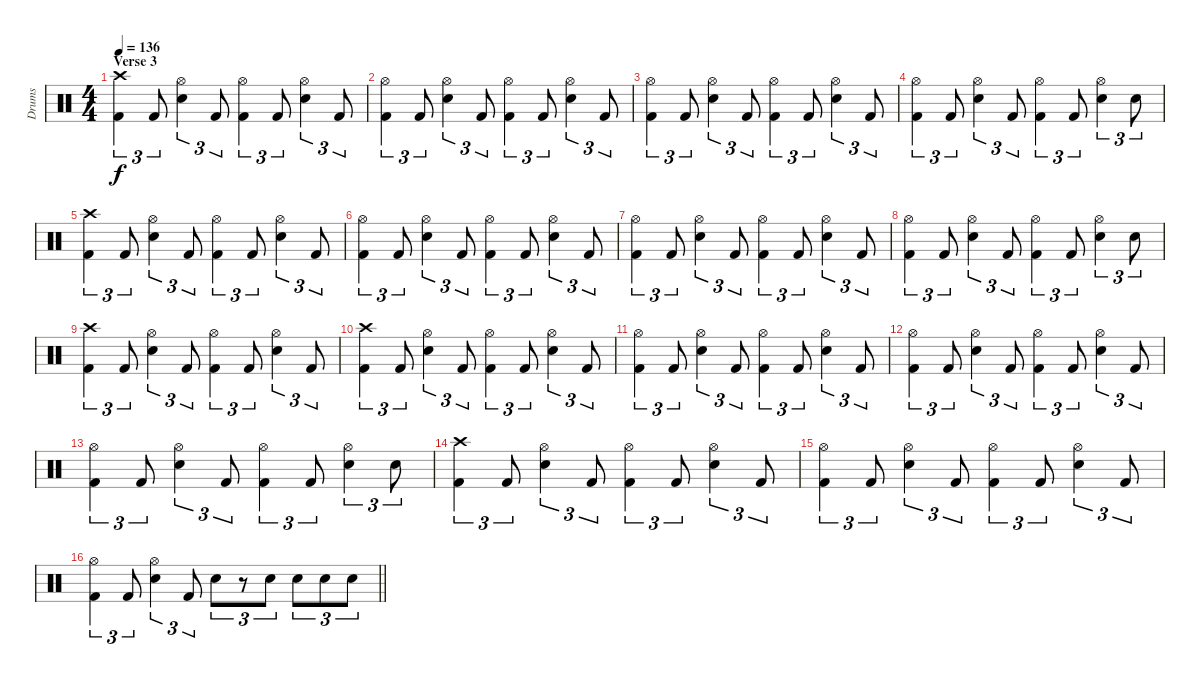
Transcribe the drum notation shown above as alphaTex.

\track ("Drums" "Drums") {instrument percussion}
\staff {score}
\articulation defaults
\ts (4 4)
\section ("" "Verse 3")
\tempo 136
\clef neutral
\ks c
("Crash high (hit)" "Kick (hit) 2").4{tu (3 2) dy f} "Kick (hit) 2".8{tu (3 2)} ("Hi-Hat (open)" "Electric Snare (hit)").4{tu (3 2)} "Kick (hit) 2".8{tu (3 2)} ("Hi-Hat (open)" "Kick (hit) 2").4{tu (3 2)} "Kick (hit) 2".8{tu (3 2)} ("Hi-Hat (open)" "Electric Snare (hit)").4{tu (3 2)} "Kick (hit) 2".8{tu (3 2)} |
("Hi-Hat (open)" "Kick (hit) 2").4{tu (3 2)} "Kick (hit) 2".8{tu (3 2)} ("Hi-Hat (open)" "Electric Snare (hit)").4{tu (3 2)} "Kick (hit) 2".8{tu (3 2)} ("Hi-Hat (open)" "Kick (hit) 2").4{tu (3 2)} "Kick (hit) 2".8{tu (3 2)} ("Hi-Hat (open)" "Electric Snare (hit)").4{tu (3 2)} "Kick (hit) 2".8{tu (3 2)} |
("Hi-Hat (open)" "Kick (hit) 2").4{tu (3 2)} "Kick (hit) 2".8{tu (3 2)} ("Hi-Hat (open)" "Electric Snare (hit)").4{tu (3 2)} "Kick (hit) 2".8{tu (3 2)} ("Hi-Hat (open)" "Kick (hit) 2").4{tu (3 2)} "Kick (hit) 2".8{tu (3 2)} ("Hi-Hat (open)" "Electric Snare (hit)").4{tu (3 2)} "Kick (hit) 2".8{tu (3 2)} |
("Hi-Hat (open)" "Kick (hit) 2").4{tu (3 2)} "Kick (hit) 2".8{tu (3 2)} ("Hi-Hat (open)" "Electric Snare (hit)").4{tu (3 2)} "Kick (hit) 2".8{tu (3 2)} ("Hi-Hat (open)" "Kick (hit) 2").4{tu (3 2)} "Kick (hit) 2".8{tu (3 2)} ("Hi-Hat (open)" "Electric Snare (hit)").4{tu (3 2)} "Electric Snare (hit)".8{tu (3 2)} |
("Crash high (hit)" "Kick (hit) 2").4{tu (3 2)} "Kick (hit) 2".8{tu (3 2)} ("Hi-Hat (open)" "Electric Snare (hit)").4{tu (3 2)} "Kick (hit) 2".8{tu (3 2)} ("Hi-Hat (open)" "Kick (hit) 2").4{tu (3 2)} "Kick (hit) 2".8{tu (3 2)} ("Hi-Hat (open)" "Electric Snare (hit)").4{tu (3 2)} "Kick (hit) 2".8{tu (3 2)} |
("Hi-Hat (open)" "Kick (hit) 2").4{tu (3 2)} "Kick (hit) 2".8{tu (3 2)} ("Hi-Hat (open)" "Electric Snare (hit)").4{tu (3 2)} "Kick (hit) 2".8{tu (3 2)} ("Hi-Hat (open)" "Kick (hit) 2").4{tu (3 2)} "Kick (hit) 2".8{tu (3 2)} ("Hi-Hat (open)" "Electric Snare (hit)").4{tu (3 2)} "Kick (hit) 2".8{tu (3 2)} |
("Hi-Hat (open)" "Kick (hit) 2").4{tu (3 2)} "Kick (hit) 2".8{tu (3 2)} ("Hi-Hat (open)" "Electric Snare (hit)").4{tu (3 2)} "Kick (hit) 2".8{tu (3 2)} ("Hi-Hat (open)" "Kick (hit) 2").4{tu (3 2)} "Kick (hit) 2".8{tu (3 2)} ("Hi-Hat (open)" "Electric Snare (hit)").4{tu (3 2)} "Kick (hit) 2".8{tu (3 2)} |
("Hi-Hat (open)" "Kick (hit) 2").4{tu (3 2)} "Kick (hit) 2".8{tu (3 2)} ("Hi-Hat (open)" "Electric Snare (hit)").4{tu (3 2)} "Kick (hit) 2".8{tu (3 2)} ("Hi-Hat (open)" "Kick (hit) 2").4{tu (3 2)} "Kick (hit) 2".8{tu (3 2)} ("Hi-Hat (open)" "Electric Snare (hit)").4{tu (3 2)} "Electric Snare (hit)".8{tu (3 2)} |
("Crash high (hit)" "Kick (hit) 2").4{tu (3 2)} "Kick (hit) 2".8{tu (3 2)} ("Hi-Hat (open)" "Electric Snare (hit)").4{tu (3 2)} "Kick (hit) 2".8{tu (3 2)} ("Hi-Hat (open)" "Kick (hit) 2").4{tu (3 2)} "Kick (hit) 2".8{tu (3 2)} ("Hi-Hat (open)" "Electric Snare (hit)").4{tu (3 2)} "Kick (hit) 2".8{tu (3 2)} |
("Crash high (hit)" "Kick (hit) 2").4{tu (3 2)} "Kick (hit) 2".8{tu (3 2)} ("Hi-Hat (open)" "Electric Snare (hit)").4{tu (3 2)} "Kick (hit) 2".8{tu (3 2)} ("Hi-Hat (open)" "Kick (hit) 2").4{tu (3 2)} "Kick (hit) 2".8{tu (3 2)} ("Hi-Hat (open)" "Electric Snare (hit)").4{tu (3 2)} "Kick (hit) 2".8{tu (3 2)} |
("Hi-Hat (open)" "Kick (hit) 2").4{tu (3 2)} "Kick (hit) 2".8{tu (3 2)} ("Hi-Hat (open)" "Electric Snare (hit)").4{tu (3 2)} "Kick (hit) 2".8{tu (3 2)} ("Hi-Hat (open)" "Kick (hit) 2").4{tu (3 2)} "Kick (hit) 2".8{tu (3 2)} ("Hi-Hat (open)" "Electric Snare (hit)").4{tu (3 2)} "Kick (hit) 2".8{tu (3 2)} |
("Hi-Hat (open)" "Kick (hit) 2").4{tu (3 2)} "Kick (hit) 2".8{tu (3 2)} ("Hi-Hat (open)" "Electric Snare (hit)").4{tu (3 2)} "Kick (hit) 2".8{tu (3 2)} ("Hi-Hat (open)" "Kick (hit) 2").4{tu (3 2)} "Kick (hit) 2".8{tu (3 2)} ("Hi-Hat (open)" "Electric Snare (hit)").4{tu (3 2)} "Kick (hit) 2".8{tu (3 2)} |
("Hi-Hat (open)" "Kick (hit) 2").4{tu (3 2)} "Kick (hit) 2".8{tu (3 2)} ("Hi-Hat (open)" "Electric Snare (hit)").4{tu (3 2)} "Kick (hit) 2".8{tu (3 2)} ("Hi-Hat (open)" "Kick (hit) 2").4{tu (3 2)} "Kick (hit) 2".8{tu (3 2)} ("Hi-Hat (open)" "Electric Snare (hit)").4{tu (3 2)} "Electric Snare (hit)".8{tu (3 2)} |
("Crash high (hit)" "Kick (hit) 2").4{tu (3 2)} "Kick (hit) 2".8{tu (3 2)} ("Hi-Hat (open)" "Electric Snare (hit)").4{tu (3 2)} "Kick (hit) 2".8{tu (3 2)} ("Hi-Hat (open)" "Kick (hit) 2").4{tu (3 2)} "Kick (hit) 2".8{tu (3 2)} ("Hi-Hat (open)" "Electric Snare (hit)").4{tu (3 2)} "Kick (hit) 2".8{tu (3 2)} |
("Hi-Hat (open)" "Kick (hit) 2").4{tu (3 2)} "Kick (hit) 2".8{tu (3 2)} ("Hi-Hat (open)" "Electric Snare (hit)").4{tu (3 2)} "Kick (hit) 2".8{tu (3 2)} ("Hi-Hat (open)" "Kick (hit) 2").4{tu (3 2)} "Kick (hit) 2".8{tu (3 2)} ("Hi-Hat (open)" "Electric Snare (hit)").4{tu (3 2)} "Kick (hit) 2".8{tu (3 2)} |
\barLineRight lightlight
("Hi-Hat (open)" "Kick (hit) 2").4{tu (3 2)} "Kick (hit) 2".8{tu (3 2)} ("Hi-Hat (open)" "Electric Snare (hit)").4{tu (3 2)} "Kick (hit) 2".8{tu (3 2)} "Electric Snare (hit)".8{tu (3 2)} r.8{tu (3 2)} "Electric Snare (hit)".8{tu (3 2)} "Electric Snare (hit)".8{tu (3 2)} "Electric Snare (hit)".8{tu (3 2)} "Electric Snare (hit)".8{tu (3 2)}
